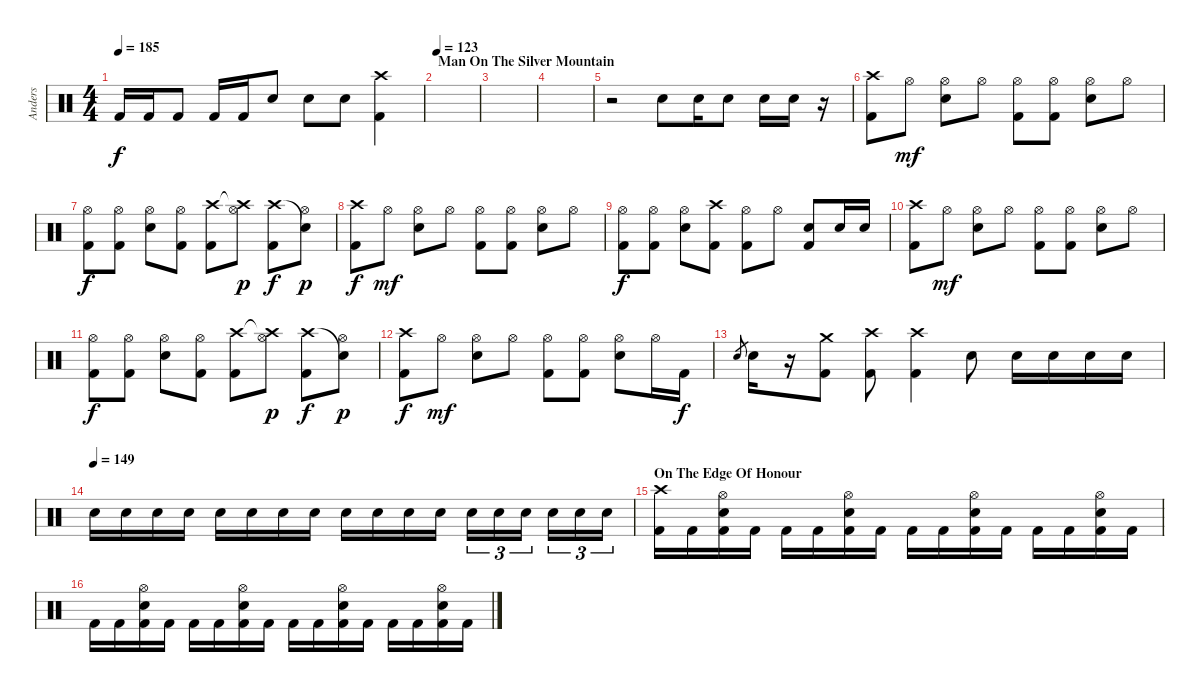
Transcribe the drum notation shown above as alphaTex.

\track ("Anders" "Anders") {instrument percussion}
\staff {score}
\articulation defaults
\ts (4 4)
\tempo 185
\clef neutral
\ks c "Kick (hit) 2".16{dy f} "Kick (hit) 2".16 "Kick (hit) 2".8 "Kick (hit) 2".16 "Kick (hit) 2".16 "Electric Snare (hit)".8 "Electric Snare (hit)".8 "Electric Snare (hit)".8
("Crash high (hit)" "Kick (hit) 2").4 |
\section ("" "Man On The Silver Mountain")
\tempo 123
|
|
|
r.2 "Electric Snare (hit)".8 "Electric Snare (hit)".16 "Electric Snare (hit)".8 "Electric Snare (hit)".16 "Electric Snare (hit)".16 r.16 |
("Crash high (hit)" "Kick (hit) 2").8 "Hi-Hat (open)".8{dy mf} ("Hi-Hat (open)" "Electric Snare (hit)").8 "Hi-Hat (open)".8 ("Hi-Hat (open)" "Kick (hit) 2").8 ("Hi-Hat (open)" "Kick (hit) 2").8 ("Hi-Hat (open)" "Electric Snare (hit)").8 "Hi-Hat (open)".8 |
("Hi-Hat (open)" "Kick (hit) 2").8{dy f} ("Hi-Hat (open)" "Kick (hit) 2").8 ("Hi-Hat (open)" "Electric Snare (hit)").8 ("Hi-Hat (open)" "Kick (hit) 2").8 ("Crash high (hit)" "Kick (hit) 2").8 ("Crash high (hit)"{t} "Hi-Hat (open)").8{dy p} ("Crash high (hit)" "Kick (hit) 2").8{dy f} ("Snare (hit)"{t} "Hi-Hat (open)").8{dy p} |
("Crash high (hit)" "Kick (hit) 2").8{dy f} "Hi-Hat (open)".8{dy mf} ("Hi-Hat (open)" "Electric Snare (hit)").8 "Hi-Hat (open)".8 ("Hi-Hat (open)" "Kick (hit) 2").8 ("Hi-Hat (open)" "Kick (hit) 2").8 ("Hi-Hat (open)" "Electric Snare (hit)").8 "Hi-Hat (open)".8 |
("Hi-Hat (open)" "Kick (hit) 2").8{dy f} ("Hi-Hat (open)" "Kick (hit) 2").8 ("Hi-Hat (open)" "Electric Snare (hit)").8 ("Crash high (hit)" "Kick (hit) 2").8 ("Hi-Hat (open)" "Kick (hit) 2").8 "Hi-Hat (open)".8 ("Electric Snare (hit)" "Kick (hit) 2").8 "Electric Snare (hit)".16 "Electric Snare (hit)".16 |
("Crash high (hit)" "Kick (hit) 2").8 "Hi-Hat (open)".8{dy mf} ("Hi-Hat (open)" "Electric Snare (hit)").8 "Hi-Hat (open)".8 ("Hi-Hat (open)" "Kick (hit) 2").8 ("Hi-Hat (open)" "Kick (hit) 2").8 ("Hi-Hat (open)" "Electric Snare (hit)").8 "Hi-Hat (open)".8 |
("Hi-Hat (open)" "Kick (hit) 2").8{dy f} ("Hi-Hat (open)" "Kick (hit) 2").8 ("Hi-Hat (open)" "Electric Snare (hit)").8 ("Hi-Hat (open)" "Kick (hit) 2").8 ("Crash high (hit)" "Kick (hit) 2").8 ("Crash high (hit)"{t} "Hi-Hat (open)").8{dy p} ("Crash high (hit)" "Kick (hit) 2").8{dy f} ("Snare (hit)"{t} "Hi-Hat (open)").8{dy p} |
("Crash high (hit)" "Kick (hit) 2").8{dy f} "Hi-Hat (open)".8{dy mf} ("Hi-Hat (open)" "Electric Snare (hit)").8 "Hi-Hat (open)".8 ("Hi-Hat (open)" "Kick (hit) 2").8 ("Hi-Hat (open)" "Kick (hit) 2").8 ("Hi-Hat (open)" "Electric Snare (hit)").8 "Hi-Hat (open)".16 "Kick (hit) 2".16{dy f} |
"Electric Snare (hit)".8{gr} "Electric Snare (hit)".16 r.16 ("Crash medium (hit)" "Kick (hit) 2").8 ("Crash high (hit)" "Kick (hit) 2").8 ("Crash high (hit)" "Kick (hit) 2").4 "Electric Snare (hit)".8 "Electric Snare (hit)".16 "Electric Snare (hit)".16 "Electric Snare (hit)".16 "Electric Snare (hit)".16 |
\tempo (149)
"Electric Snare (hit)".16 "Electric Snare (hit)".16 "Electric Snare (hit)".16 "Electric Snare (hit)".16 "Electric Snare (hit)".16 "Electric Snare (hit)".16 "Electric Snare (hit)".16 "Electric Snare (hit)".16 "Electric Snare (hit)".16 "Electric Snare (hit)".16 "Electric Snare (hit)".16 "Electric Snare (hit)".16 "Electric Snare (hit)".16{tu (3 2)} "Electric Snare (hit)".16{tu (3 2)} "Electric Snare (hit)".16{tu (3 2)} "Electric Snare (hit)".16{tu (3 2)} "Electric Snare (hit)".16{tu (3 2)} "Electric Snare (hit)".16{tu (3 2)} |
\section ("" "On The Edge Of Honour")
("Crash high (hit)" "Kick (hit) 2").16 "Kick (hit) 2".16 ("Hi-Hat (open)" "Electric Snare (hit)" "Kick (hit) 2").16 "Kick (hit) 2".16 "Kick (hit) 2".16 "Kick (hit) 2".16 ("Hi-Hat (open)" "Electric Snare (hit)" "Kick (hit) 2").16 "Kick (hit) 2".16 "Kick (hit) 2".16 "Kick (hit) 2".16 ("Hi-Hat (open)" "Electric Snare (hit)" "Kick (hit) 2").16 "Kick (hit) 2".16 "Kick (hit) 2".16 "Kick (hit) 2".16 ("Hi-Hat (open)" "Electric Snare (hit)" "Kick (hit) 2").16 "Kick (hit) 2".16 |
"Kick (hit) 2".16 "Kick (hit) 2".16 ("Hi-Hat (open)" "Electric Snare (hit)" "Kick (hit) 2").16 "Kick (hit) 2".16 "Kick (hit) 2".16 "Kick (hit) 2".16 ("Hi-Hat (open)" "Electric Snare (hit)" "Kick (hit) 2").16 "Kick (hit) 2".16 "Kick (hit) 2".16 "Kick (hit) 2".16 ("Hi-Hat (open)" "Electric Snare (hit)" "Kick (hit) 2").16 "Kick (hit) 2".16 "Kick (hit) 2".16 "Kick (hit) 2".16 ("Hi-Hat (open)" "Electric Snare (hit)" "Kick (hit) 2").16 "Kick (hit) 2".16
